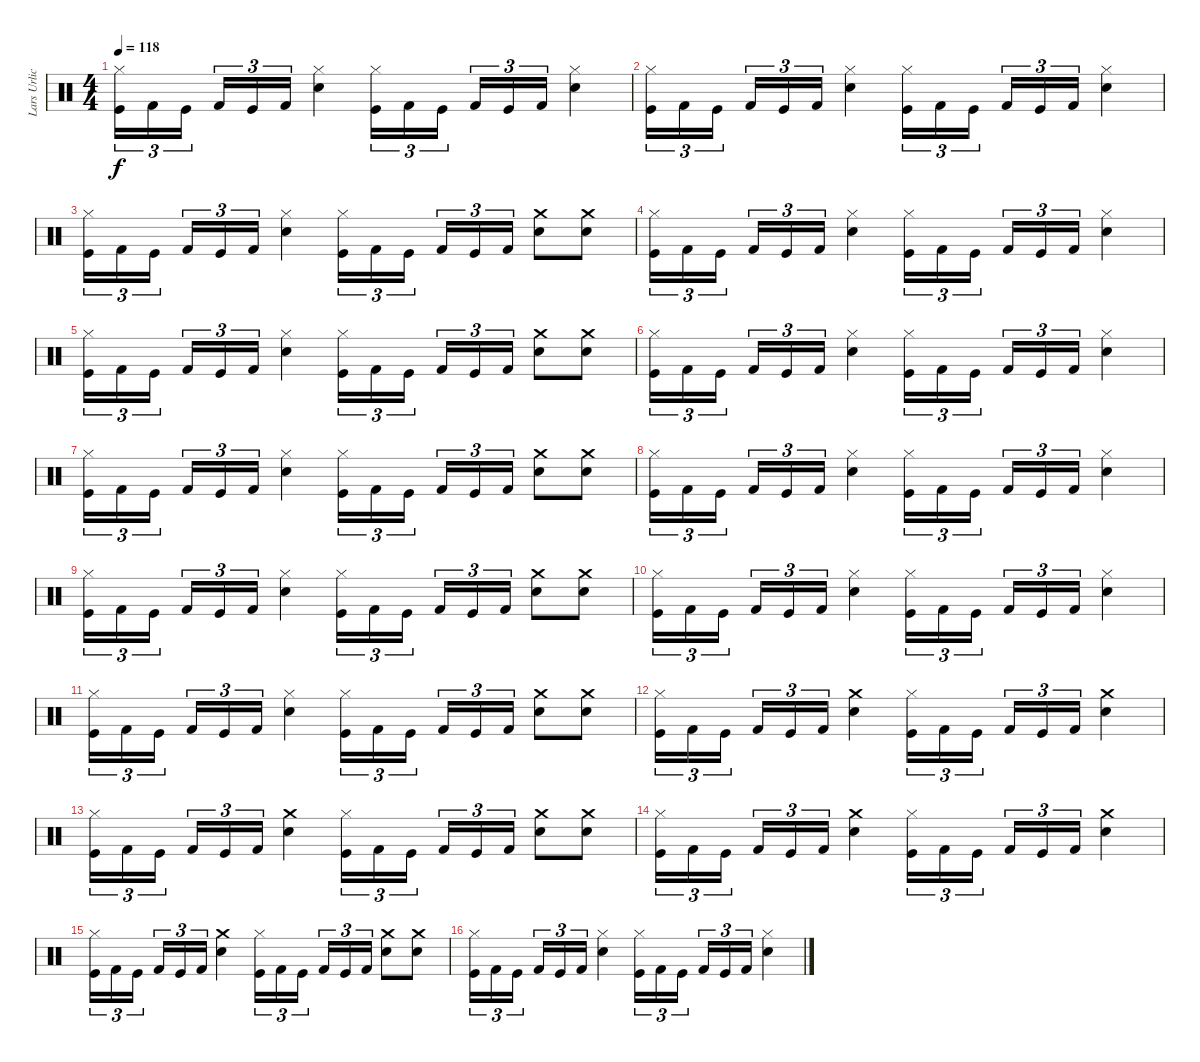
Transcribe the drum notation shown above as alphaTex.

\track ("Lars Urlich" "Lars Urlic") {instrument percussion}
\staff {score}
\articulation defaults
\ts (4 4)
\tempo 118
\clef neutral
\ks c
("Hi-Hat (closed)" "Kick (hit)").16{tu (3 2) dy f} "Kick (hit) 2".16{tu (3 2)} "Kick (hit)".16{tu (3 2)} "Kick (hit) 2".16{tu (3 2)} "Kick (hit)".16{tu (3 2)} "Kick (hit) 2".16{tu (3 2)} ("Snare (hit) 2" "Hi-Hat (closed)").4 ("Hi-Hat (closed)" "Kick (hit)").16{tu (3 2)} "Kick (hit) 2".16{tu (3 2)} "Kick (hit)".16{tu (3 2)} "Kick (hit) 2".16{tu (3 2)} "Kick (hit)".16{tu (3 2)} "Kick (hit) 2".16{tu (3 2)} ("Snare (hit) 2" "Hi-Hat (closed)").4 |
("Hi-Hat (closed)" "Kick (hit)").16{tu (3 2)} "Kick (hit) 2".16{tu (3 2)} "Kick (hit)".16{tu (3 2)} "Kick (hit) 2".16{tu (3 2)} "Kick (hit)".16{tu (3 2)} "Kick (hit) 2".16{tu (3 2)} ("Snare (hit) 2" "Hi-Hat (closed)").4 ("Hi-Hat (closed)" "Kick (hit)").16{tu (3 2)} "Kick (hit) 2".16{tu (3 2)} "Kick (hit)".16{tu (3 2)} "Kick (hit) 2".16{tu (3 2)} "Kick (hit)".16{tu (3 2)} "Kick (hit) 2".16{tu (3 2)} ("Snare (hit) 2" "Hi-Hat (closed)").4 |
("Hi-Hat (closed)" "Kick (hit)").16{tu (3 2)} "Kick (hit) 2".16{tu (3 2)} "Kick (hit)".16{tu (3 2)} "Kick (hit) 2".16{tu (3 2)} "Kick (hit)".16{tu (3 2)} "Kick (hit) 2".16{tu (3 2)} ("Snare (hit) 2" "Hi-Hat (closed)").4 ("Hi-Hat (closed)" "Kick (hit)").16{tu (3 2)} "Kick (hit) 2".16{tu (3 2)} "Kick (hit)".16{tu (3 2)} "Kick (hit) 2".16{tu (3 2)} "Kick (hit)".16{tu (3 2)} "Kick (hit) 2".16{tu (3 2)} ("Snare (hit) 2" "Crash medium (hit)").8 ("Snare (hit) 2" "Crash medium (hit)").8 |
("Hi-Hat (closed)" "Kick (hit)").16{tu (3 2)} "Kick (hit) 2".16{tu (3 2)} "Kick (hit)".16{tu (3 2)} "Kick (hit) 2".16{tu (3 2)} "Kick (hit)".16{tu (3 2)} "Kick (hit) 2".16{tu (3 2)} ("Snare (hit) 2" "Hi-Hat (closed)").4 ("Hi-Hat (closed)" "Kick (hit)").16{tu (3 2)} "Kick (hit) 2".16{tu (3 2)} "Kick (hit)".16{tu (3 2)} "Kick (hit) 2".16{tu (3 2)} "Kick (hit)".16{tu (3 2)} "Kick (hit) 2".16{tu (3 2)} ("Snare (hit) 2" "Hi-Hat (closed)").4 |
("Hi-Hat (closed)" "Kick (hit)").16{tu (3 2)} "Kick (hit) 2".16{tu (3 2)} "Kick (hit)".16{tu (3 2)} "Kick (hit) 2".16{tu (3 2)} "Kick (hit)".16{tu (3 2)} "Kick (hit) 2".16{tu (3 2)} ("Snare (hit) 2" "Hi-Hat (closed)").4 ("Hi-Hat (closed)" "Kick (hit)").16{tu (3 2)} "Kick (hit) 2".16{tu (3 2)} "Kick (hit)".16{tu (3 2)} "Kick (hit) 2".16{tu (3 2)} "Kick (hit)".16{tu (3 2)} "Kick (hit) 2".16{tu (3 2)} ("Snare (hit) 2" "Crash medium (hit)").8 ("Snare (hit) 2" "Crash medium (hit)").8 |
("Hi-Hat (closed)" "Kick (hit)").16{tu (3 2)} "Kick (hit) 2".16{tu (3 2)} "Kick (hit)".16{tu (3 2)} "Kick (hit) 2".16{tu (3 2)} "Kick (hit)".16{tu (3 2)} "Kick (hit) 2".16{tu (3 2)} ("Snare (hit) 2" "Hi-Hat (closed)").4 ("Hi-Hat (closed)" "Kick (hit)").16{tu (3 2)} "Kick (hit) 2".16{tu (3 2)} "Kick (hit)".16{tu (3 2)} "Kick (hit) 2".16{tu (3 2)} "Kick (hit)".16{tu (3 2)} "Kick (hit) 2".16{tu (3 2)} ("Snare (hit) 2" "Hi-Hat (closed)").4 |
("Hi-Hat (closed)" "Kick (hit)").16{tu (3 2)} "Kick (hit) 2".16{tu (3 2)} "Kick (hit)".16{tu (3 2)} "Kick (hit) 2".16{tu (3 2)} "Kick (hit)".16{tu (3 2)} "Kick (hit) 2".16{tu (3 2)} ("Snare (hit) 2" "Hi-Hat (closed)").4 ("Hi-Hat (closed)" "Kick (hit)").16{tu (3 2)} "Kick (hit) 2".16{tu (3 2)} "Kick (hit)".16{tu (3 2)} "Kick (hit) 2".16{tu (3 2)} "Kick (hit)".16{tu (3 2)} "Kick (hit) 2".16{tu (3 2)} ("Snare (hit) 2" "Crash medium (hit)").8 ("Snare (hit) 2" "Crash medium (hit)").8 |
("Hi-Hat (closed)" "Kick (hit)").16{tu (3 2)} "Kick (hit) 2".16{tu (3 2)} "Kick (hit)".16{tu (3 2)} "Kick (hit) 2".16{tu (3 2)} "Kick (hit)".16{tu (3 2)} "Kick (hit) 2".16{tu (3 2)} ("Snare (hit) 2" "Hi-Hat (closed)").4 ("Hi-Hat (closed)" "Kick (hit)").16{tu (3 2)} "Kick (hit) 2".16{tu (3 2)} "Kick (hit)".16{tu (3 2)} "Kick (hit) 2".16{tu (3 2)} "Kick (hit)".16{tu (3 2)} "Kick (hit) 2".16{tu (3 2)} ("Snare (hit) 2" "Hi-Hat (closed)").4 |
("Hi-Hat (closed)" "Kick (hit)").16{tu (3 2)} "Kick (hit) 2".16{tu (3 2)} "Kick (hit)".16{tu (3 2)} "Kick (hit) 2".16{tu (3 2)} "Kick (hit)".16{tu (3 2)} "Kick (hit) 2".16{tu (3 2)} ("Snare (hit) 2" "Hi-Hat (closed)").4 ("Hi-Hat (closed)" "Kick (hit)").16{tu (3 2)} "Kick (hit) 2".16{tu (3 2)} "Kick (hit)".16{tu (3 2)} "Kick (hit) 2".16{tu (3 2)} "Kick (hit)".16{tu (3 2)} "Kick (hit) 2".16{tu (3 2)} ("Snare (hit) 2" "Crash medium (hit)").8 ("Snare (hit) 2" "Crash medium (hit)").8 |
("Hi-Hat (closed)" "Kick (hit)").16{tu (3 2)} "Kick (hit) 2".16{tu (3 2)} "Kick (hit)".16{tu (3 2)} "Kick (hit) 2".16{tu (3 2)} "Kick (hit)".16{tu (3 2)} "Kick (hit) 2".16{tu (3 2)} ("Snare (hit) 2" "Hi-Hat (closed)").4 ("Hi-Hat (closed)" "Kick (hit)").16{tu (3 2)} "Kick (hit) 2".16{tu (3 2)} "Kick (hit)".16{tu (3 2)} "Kick (hit) 2".16{tu (3 2)} "Kick (hit)".16{tu (3 2)} "Kick (hit) 2".16{tu (3 2)} ("Snare (hit) 2" "Hi-Hat (closed)").4 |
("Hi-Hat (closed)" "Kick (hit)").16{tu (3 2)} "Kick (hit) 2".16{tu (3 2)} "Kick (hit)".16{tu (3 2)} "Kick (hit) 2".16{tu (3 2)} "Kick (hit)".16{tu (3 2)} "Kick (hit) 2".16{tu (3 2)} ("Snare (hit) 2" "Hi-Hat (closed)").4 ("Hi-Hat (closed)" "Kick (hit)").16{tu (3 2)} "Kick (hit) 2".16{tu (3 2)} "Kick (hit)".16{tu (3 2)} "Kick (hit) 2".16{tu (3 2)} "Kick (hit)".16{tu (3 2)} "Kick (hit) 2".16{tu (3 2)} ("Snare (hit) 2" "Crash medium (hit)").8 ("Snare (hit) 2" "Crash medium (hit)").8 |
("Hi-Hat (closed)" "Kick (hit)").16{tu (3 2)} "Kick (hit) 2".16{tu (3 2)} "Kick (hit)".16{tu (3 2)} "Kick (hit) 2".16{tu (3 2)} "Kick (hit)".16{tu (3 2)} "Kick (hit) 2".16{tu (3 2)} ("Crash medium (hit)" "Snare (hit) 2").4 ("Hi-Hat (closed)" "Kick (hit)").16{tu (3 2)} "Kick (hit) 2".16{tu (3 2)} "Kick (hit)".16{tu (3 2)} "Kick (hit) 2".16{tu (3 2)} "Kick (hit)".16{tu (3 2)} "Kick (hit) 2".16{tu (3 2)} ("Crash medium (hit)" "Snare (hit) 2").4 |
("Hi-Hat (closed)" "Kick (hit)").16{tu (3 2)} "Kick (hit) 2".16{tu (3 2)} "Kick (hit)".16{tu (3 2)} "Kick (hit) 2".16{tu (3 2)} "Kick (hit)".16{tu (3 2)} "Kick (hit) 2".16{tu (3 2)} ("Crash medium (hit)" "Snare (hit) 2").4 ("Hi-Hat (closed)" "Kick (hit)").16{tu (3 2)} "Kick (hit) 2".16{tu (3 2)} "Kick (hit)".16{tu (3 2)} "Kick (hit) 2".16{tu (3 2)} "Kick (hit)".16{tu (3 2)} "Kick (hit) 2".16{tu (3 2)} ("Snare (hit) 2" "Crash medium (hit)").8 ("Snare (hit) 2" "Crash medium (hit)").8 |
("Hi-Hat (closed)" "Kick (hit)").16{tu (3 2)} "Kick (hit) 2".16{tu (3 2)} "Kick (hit)".16{tu (3 2)} "Kick (hit) 2".16{tu (3 2)} "Kick (hit)".16{tu (3 2)} "Kick (hit) 2".16{tu (3 2)} ("Crash medium (hit)" "Snare (hit) 2").4 ("Hi-Hat (closed)" "Kick (hit)").16{tu (3 2)} "Kick (hit) 2".16{tu (3 2)} "Kick (hit)".16{tu (3 2)} "Kick (hit) 2".16{tu (3 2)} "Kick (hit)".16{tu (3 2)} "Kick (hit) 2".16{tu (3 2)} ("Crash medium (hit)" "Snare (hit) 2").4 |
("Hi-Hat (closed)" "Kick (hit)").16{tu (3 2)} "Kick (hit) 2".16{tu (3 2)} "Kick (hit)".16{tu (3 2)} "Kick (hit) 2".16{tu (3 2)} "Kick (hit)".16{tu (3 2)} "Kick (hit) 2".16{tu (3 2)} ("Crash medium (hit)" "Snare (hit) 2").4 ("Hi-Hat (closed)" "Kick (hit)").16{tu (3 2)} "Kick (hit) 2".16{tu (3 2)} "Kick (hit)".16{tu (3 2)} "Kick (hit) 2".16{tu (3 2)} "Kick (hit)".16{tu (3 2)} "Kick (hit) 2".16{tu (3 2)} ("Snare (hit) 2" "Crash medium (hit)").8 ("Snare (hit) 2" "Crash medium (hit)").8 |
("Hi-Hat (closed)" "Kick (hit)").16{tu (3 2)} "Kick (hit) 2".16{tu (3 2)} "Kick (hit)".16{tu (3 2)} "Kick (hit) 2".16{tu (3 2)} "Kick (hit)".16{tu (3 2)} "Kick (hit) 2".16{tu (3 2)} ("Snare (hit) 2" "Hi-Hat (closed)").4 ("Hi-Hat (closed)" "Kick (hit)").16{tu (3 2)} "Kick (hit) 2".16{tu (3 2)} "Kick (hit)".16{tu (3 2)} "Kick (hit) 2".16{tu (3 2)} "Kick (hit)".16{tu (3 2)} "Kick (hit) 2".16{tu (3 2)} ("Snare (hit) 2" "Hi-Hat (closed)").4
